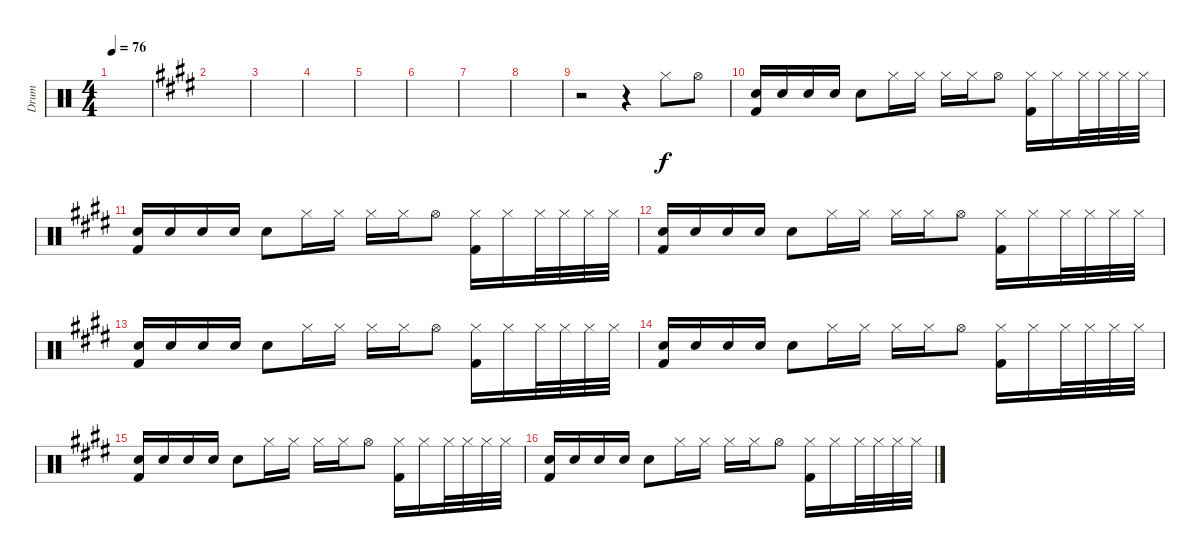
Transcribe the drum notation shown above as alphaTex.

\track ("Drum" "Drum") {instrument percussion}
\staff {score}
\articulation defaults
\ts (4 4)
\tempo 76
\clef neutral
\ks c
|
\ks e
|
|
|
|
|
|
|
r.2 r.4 "Hi-Hat (closed)".8 "Hi-Hat (open)".8 |
("Electric Snare (hit)" "Kick (hit) 2").16 "Electric Snare (hit)".16 "Electric Snare (hit)".16 "Electric Snare (hit)".16 "Electric Snare (hit)".8 "Hi-Hat (closed)".16 "Hi-Hat (closed)".16 "Hi-Hat (closed)".16 "Hi-Hat (closed)".16 "Hi-Hat (open)".8 ("Hi-Hat (closed)" "Kick (hit) 2").16 "Hi-Hat (closed)".16 "Hi-Hat (closed)".32 "Hi-Hat (closed)".32 "Hi-Hat (closed)".32 "Hi-Hat (closed)".32 |
("Electric Snare (hit)" "Kick (hit) 2").16 "Electric Snare (hit)".16 "Electric Snare (hit)".16 "Electric Snare (hit)".16 "Electric Snare (hit)".8 "Hi-Hat (closed)".16 "Hi-Hat (closed)".16 "Hi-Hat (closed)".16 "Hi-Hat (closed)".16 "Hi-Hat (open)".8 ("Hi-Hat (closed)" "Kick (hit) 2").16 "Hi-Hat (closed)".16 "Hi-Hat (closed)".32 "Hi-Hat (closed)".32 "Hi-Hat (closed)".32 "Hi-Hat (closed)".32 |
("Electric Snare (hit)" "Kick (hit) 2").16 "Electric Snare (hit)".16 "Electric Snare (hit)".16 "Electric Snare (hit)".16 "Electric Snare (hit)".8 "Hi-Hat (closed)".16 "Hi-Hat (closed)".16 "Hi-Hat (closed)".16 "Hi-Hat (closed)".16 "Hi-Hat (open)".8 ("Hi-Hat (closed)" "Kick (hit) 2").16 "Hi-Hat (closed)".16 "Hi-Hat (closed)".32 "Hi-Hat (closed)".32 "Hi-Hat (closed)".32 "Hi-Hat (closed)".32 |
("Electric Snare (hit)" "Kick (hit) 2").16 "Electric Snare (hit)".16 "Electric Snare (hit)".16 "Electric Snare (hit)".16 "Electric Snare (hit)".8 "Hi-Hat (closed)".16 "Hi-Hat (closed)".16 "Hi-Hat (closed)".16 "Hi-Hat (closed)".16 "Hi-Hat (open)".8 ("Hi-Hat (closed)" "Kick (hit) 2").16 "Hi-Hat (closed)".16 "Hi-Hat (closed)".32 "Hi-Hat (closed)".32 "Hi-Hat (closed)".32 "Hi-Hat (closed)".32 |
("Electric Snare (hit)" "Kick (hit) 2").16 "Electric Snare (hit)".16 "Electric Snare (hit)".16 "Electric Snare (hit)".16 "Electric Snare (hit)".8 "Hi-Hat (closed)".16 "Hi-Hat (closed)".16 "Hi-Hat (closed)".16 "Hi-Hat (closed)".16 "Hi-Hat (open)".8 ("Hi-Hat (closed)" "Kick (hit) 2").16 "Hi-Hat (closed)".16 "Hi-Hat (closed)".32 "Hi-Hat (closed)".32 "Hi-Hat (closed)".32 "Hi-Hat (closed)".32 |
("Electric Snare (hit)" "Kick (hit) 2").16 "Electric Snare (hit)".16 "Electric Snare (hit)".16 "Electric Snare (hit)".16 "Electric Snare (hit)".8 "Hi-Hat (closed)".16 "Hi-Hat (closed)".16 "Hi-Hat (closed)".16 "Hi-Hat (closed)".16 "Hi-Hat (open)".8 ("Hi-Hat (closed)" "Kick (hit) 2").16 "Hi-Hat (closed)".16 "Hi-Hat (closed)".32 "Hi-Hat (closed)".32 "Hi-Hat (closed)".32 "Hi-Hat (closed)".32 |
("Electric Snare (hit)" "Kick (hit) 2").16 "Electric Snare (hit)".16 "Electric Snare (hit)".16 "Electric Snare (hit)".16 "Electric Snare (hit)".8 "Hi-Hat (closed)".16 "Hi-Hat (closed)".16 "Hi-Hat (closed)".16 "Hi-Hat (closed)".16 "Hi-Hat (open)".8 ("Hi-Hat (closed)" "Kick (hit) 2").16 "Hi-Hat (closed)".16 "Hi-Hat (closed)".32 "Hi-Hat (closed)".32 "Hi-Hat (closed)".32 "Hi-Hat (closed)".32
